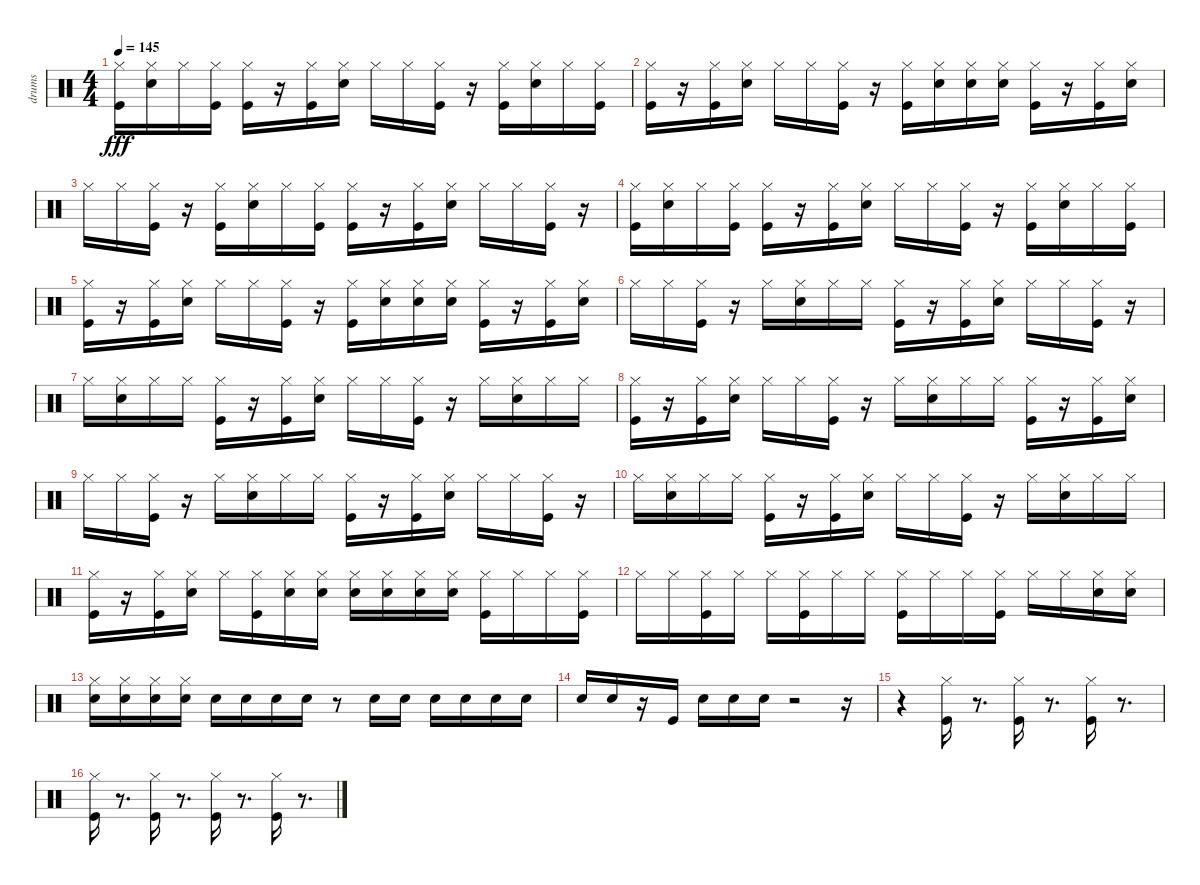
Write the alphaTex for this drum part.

\track ("drums" "drums") {instrument percussion}
\staff {score}
\articulation defaults
\ts (4 4)
\tempo 145
\clef neutral
\ks c
("Kick (hit)" "Hi-Hat (closed)").16{dy fff} ("Snare (hit) 2" "Hi-Hat (closed)").16 "Hi-Hat (closed)".16 ("Kick (hit)" "Hi-Hat (closed)").16 ("Kick (hit)" "Hi-Hat (closed)").16 r.16 ("Kick (hit)" "Hi-Hat (closed)").16 ("Snare (hit) 2" "Hi-Hat (closed)").16 "Hi-Hat (closed)".16 "Hi-Hat (closed)".16 ("Kick (hit)" "Hi-Hat (closed)").16 r.16 ("Kick (hit)" "Hi-Hat (closed)").16 ("Snare (hit) 2" "Hi-Hat (closed)").16 "Hi-Hat (closed)".16 ("Kick (hit)" "Hi-Hat (closed)").16 |
("Kick (hit)" "Hi-Hat (closed)").16 r.16 ("Kick (hit)" "Hi-Hat (closed)").16 ("Snare (hit) 2" "Hi-Hat (closed)").16 "Hi-Hat (closed)".16 "Hi-Hat (closed)".16 ("Kick (hit)" "Hi-Hat (closed)").16 r.16 ("Kick (hit)" "Hi-Hat (closed)").16 ("Snare (hit) 2" "Hi-Hat (closed)").16 ("Snare (hit) 2" "Hi-Hat (closed)").16 ("Snare (hit) 2" "Hi-Hat (closed)").16 ("Kick (hit)" "Hi-Hat (closed)").16 r.16 ("Kick (hit)" "Hi-Hat (closed)").16 ("Snare (hit) 2" "Hi-Hat (closed)").16 |
"Hi-Hat (closed)".16 "Hi-Hat (closed)".16 ("Kick (hit)" "Hi-Hat (closed)").16 r.16 ("Kick (hit)" "Hi-Hat (closed)").16 ("Snare (hit) 2" "Hi-Hat (closed)").16 "Hi-Hat (closed)".16 ("Kick (hit)" "Hi-Hat (closed)").16 ("Kick (hit)" "Hi-Hat (closed)").16 r.16 ("Kick (hit)" "Hi-Hat (closed)").16 ("Snare (hit) 2" "Hi-Hat (closed)").16 "Hi-Hat (closed)".16 "Hi-Hat (closed)".16 ("Kick (hit)" "Hi-Hat (closed)").16 r.16 |
("Kick (hit)" "Hi-Hat (closed)").16 ("Snare (hit) 2" "Hi-Hat (closed)").16 "Hi-Hat (closed)".16 ("Kick (hit)" "Hi-Hat (closed)").16 ("Kick (hit)" "Hi-Hat (closed)").16 r.16 ("Kick (hit)" "Hi-Hat (closed)").16 ("Snare (hit) 2" "Hi-Hat (closed)").16 "Hi-Hat (closed)".16 "Hi-Hat (closed)".16 ("Kick (hit)" "Hi-Hat (closed)").16 r.16 ("Kick (hit)" "Hi-Hat (closed)").16 ("Snare (hit) 2" "Hi-Hat (closed)").16 "Hi-Hat (closed)".16 ("Kick (hit)" "Hi-Hat (closed)").16 |
("Kick (hit)" "Hi-Hat (closed)").16 r.16 ("Kick (hit)" "Hi-Hat (closed)").16 ("Snare (hit) 2" "Hi-Hat (closed)").16 "Hi-Hat (closed)".16 "Hi-Hat (closed)".16 ("Kick (hit)" "Hi-Hat (closed)").16 r.16 ("Kick (hit)" "Hi-Hat (closed)").16 ("Snare (hit) 2" "Hi-Hat (closed)").16 ("Snare (hit) 2" "Hi-Hat (closed)").16 ("Snare (hit) 2" "Hi-Hat (closed)").16 ("Kick (hit)" "Hi-Hat (closed)").16 r.16 ("Kick (hit)" "Hi-Hat (closed)").16 ("Snare (hit) 2" "Hi-Hat (closed)").16 |
"Hi-Hat (closed)".16 "Hi-Hat (closed)".16 ("Kick (hit)" "Hi-Hat (closed)").16 r.16 "Hi-Hat (closed)".16 ("Snare (hit) 2" "Hi-Hat (closed)").16 "Hi-Hat (closed)".16 "Hi-Hat (closed)".16 ("Kick (hit)" "Hi-Hat (closed)").16 r.16 ("Kick (hit)" "Hi-Hat (closed)").16 ("Snare (hit) 2" "Hi-Hat (closed)").16 "Hi-Hat (closed)".16 "Hi-Hat (closed)".16 ("Kick (hit)" "Hi-Hat (closed)").16 r.16 |
"Hi-Hat (closed)".16 ("Snare (hit) 2" "Hi-Hat (closed)").16 "Hi-Hat (closed)".16 "Hi-Hat (closed)".16 ("Kick (hit)" "Hi-Hat (closed)").16 r.16 ("Kick (hit)" "Hi-Hat (closed)").16 ("Snare (hit) 2" "Hi-Hat (closed)").16 "Hi-Hat (closed)".16 "Hi-Hat (closed)".16 ("Kick (hit)" "Hi-Hat (closed)").16 r.16 "Hi-Hat (closed)".16 ("Snare (hit) 2" "Hi-Hat (closed)").16 "Hi-Hat (closed)".16 "Hi-Hat (closed)".16 |
("Kick (hit)" "Hi-Hat (closed)").16 r.16 ("Kick (hit)" "Hi-Hat (closed)").16 ("Snare (hit) 2" "Hi-Hat (closed)").16 "Hi-Hat (closed)".16 "Hi-Hat (closed)".16 ("Kick (hit)" "Hi-Hat (closed)").16 r.16 "Hi-Hat (closed)".16 ("Snare (hit) 2" "Hi-Hat (closed)").16 "Hi-Hat (closed)".16 "Hi-Hat (closed)".16 ("Kick (hit)" "Hi-Hat (closed)").16 r.16 ("Kick (hit)" "Hi-Hat (closed)").16 ("Snare (hit) 2" "Hi-Hat (closed)").16 |
"Hi-Hat (closed)".16 "Hi-Hat (closed)".16 ("Kick (hit)" "Hi-Hat (closed)").16 r.16 "Hi-Hat (closed)".16 ("Snare (hit) 2" "Hi-Hat (closed)").16 "Hi-Hat (closed)".16 "Hi-Hat (closed)".16 ("Kick (hit)" "Hi-Hat (closed)").16 r.16 ("Kick (hit)" "Hi-Hat (closed)").16 ("Snare (hit) 2" "Hi-Hat (closed)").16 "Hi-Hat (closed)".16 "Hi-Hat (closed)".16 ("Kick (hit)" "Hi-Hat (closed)").16 r.16 |
"Hi-Hat (closed)".16 ("Snare (hit) 2" "Hi-Hat (closed)").16 "Hi-Hat (closed)".16 "Hi-Hat (closed)".16 ("Kick (hit)" "Hi-Hat (closed)").16 r.16 ("Kick (hit)" "Hi-Hat (closed)").16 ("Snare (hit) 2" "Hi-Hat (closed)").16 "Hi-Hat (closed)".16 "Hi-Hat (closed)".16 ("Kick (hit)" "Hi-Hat (closed)").16 r.16 "Hi-Hat (closed)".16 ("Snare (hit) 2" "Hi-Hat (closed)").16 "Hi-Hat (closed)".16 "Hi-Hat (closed)".16 |
("Kick (hit)" "Hi-Hat (closed)").16 r.16 ("Kick (hit)" "Hi-Hat (closed)").16 ("Snare (hit) 2" "Hi-Hat (closed)").16 "Hi-Hat (closed)".16 ("Kick (hit)" "Hi-Hat (closed)").16 ("Snare (hit) 2" "Hi-Hat (closed)").16 ("Snare (hit) 2" "Hi-Hat (closed)").16 ("Snare (hit) 2" "Hi-Hat (closed)").16 ("Snare (hit) 2" "Hi-Hat (closed)").16 ("Snare (hit) 2" "Hi-Hat (closed)").16 ("Snare (hit) 2" "Hi-Hat (closed)").16 ("Kick (hit)" "Hi-Hat (closed)").16 "Hi-Hat (closed)".16 "Hi-Hat (closed)".16 ("Kick (hit)" "Hi-Hat (closed)").16 |
"Hi-Hat (closed)".16 "Hi-Hat (closed)".16 ("Kick (hit)" "Hi-Hat (closed)").16 "Hi-Hat (closed)".16 "Hi-Hat (closed)".16 ("Kick (hit)" "Hi-Hat (closed)").16 "Hi-Hat (closed)".16 "Hi-Hat (closed)".16 ("Kick (hit)" "Hi-Hat (closed)").16 "Hi-Hat (closed)".16 "Hi-Hat (closed)".16 ("Kick (hit)" "Hi-Hat (closed)").16 "Hi-Hat (closed)".16 "Hi-Hat (closed)".16 ("Snare (hit) 2" "Hi-Hat (closed)").16 ("Snare (hit) 2" "Hi-Hat (closed)").16 |
("Snare (hit) 2" "Hi-Hat (closed)").16 ("Snare (hit) 2" "Hi-Hat (closed)").16 ("Snare (hit) 2" "Hi-Hat (closed)").16 ("Snare (hit) 2" "Hi-Hat (closed)").16 "Snare (hit) 2".16 "Snare (hit) 2".16 "Snare (hit) 2".16 "Snare (hit) 2".16 r.8 "Snare (hit) 2".16 "Snare (hit) 2".16 "Snare (hit) 2".16 "Snare (hit) 2".16 "Snare (hit) 2".16 "Snare (hit) 2".16 |
"Snare (hit) 2".16 "Snare (hit) 2".16 r.16 "Kick (hit)".16 "Snare (hit) 2".16 "Snare (hit) 2".16 "Snare (hit) 2".16 r.2 r.16 |
r.4 ("Kick (hit)" "Hi-Hat (closed)").16 r.8{d} ("Kick (hit)" "Hi-Hat (closed)").16 r.8{d} ("Kick (hit)" "Hi-Hat (closed)").16 r.8{d} |
("Kick (hit)" "Hi-Hat (closed)").16 r.8{d} ("Kick (hit)" "Hi-Hat (closed)").16 r.8{d} ("Kick (hit)" "Hi-Hat (closed)").16 r.8{d} ("Kick (hit)" "Hi-Hat (closed)").16 r.8{d}
